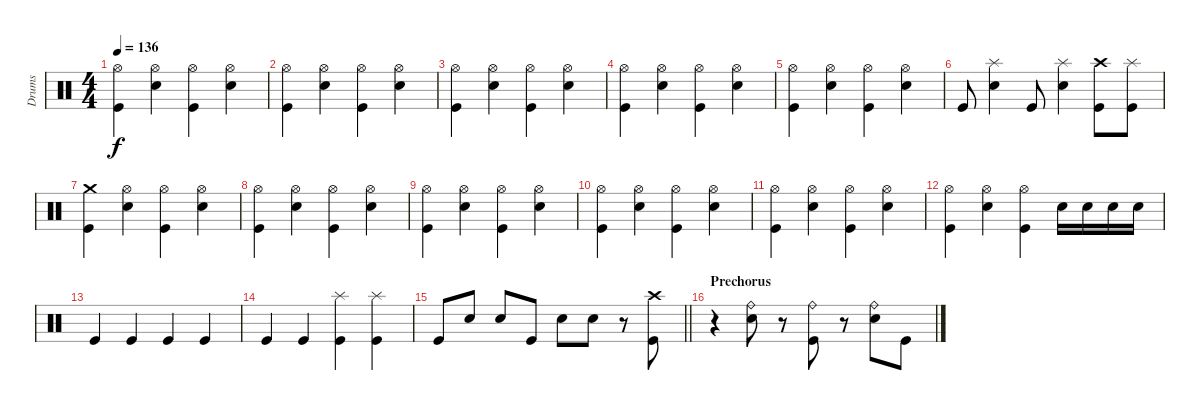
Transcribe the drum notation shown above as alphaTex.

\track ("Drums" "Drums") {instrument percussion}
\staff {score}
\articulation defaults
\ts (4 4)
\tempo 136
\clef neutral
\ks c
("Kick (hit)" "Hi-Hat (open)").4{dy f} ("Electric Snare (hit)" "Hi-Hat (open)").4 ("Kick (hit)" "Hi-Hat (open)").4 ("Electric Snare (hit)" "Hi-Hat (open)").4 |
("Kick (hit)" "Hi-Hat (open)").4 ("Electric Snare (hit)" "Hi-Hat (open)").4 ("Kick (hit)" "Hi-Hat (open)").4 ("Electric Snare (hit)" "Hi-Hat (open)").4 |
("Kick (hit)" "Hi-Hat (open)").4 ("Electric Snare (hit)" "Hi-Hat (open)").4 ("Kick (hit)" "Hi-Hat (open)").4 ("Electric Snare (hit)" "Hi-Hat (open)").4 |
("Kick (hit)" "Hi-Hat (open)").4 ("Electric Snare (hit)" "Hi-Hat (open)").4 ("Kick (hit)" "Hi-Hat (open)").4 ("Electric Snare (hit)" "Hi-Hat (open)").4 |
("Kick (hit)" "Hi-Hat (open)").4 ("Electric Snare (hit)" "Hi-Hat (open)").4 ("Kick (hit)" "Hi-Hat (open)").4 ("Electric Snare (hit)" "Hi-Hat (open)").4 |
"Kick (hit)".8 ("Electric Snare (hit)" "Splash (hit)").4 "Kick (hit)".8 ("Electric Snare (hit)" "Splash (hit)").4 ("Kick (hit)" "Crash high (hit)").8 ("Kick (hit)" "Splash (hit)").8 |
("Kick (hit)" "Crash medium (hit)").4 ("Electric Snare (hit)" "Hi-Hat (open)").4 ("Kick (hit)" "Hi-Hat (open)").4 ("Electric Snare (hit)" "Hi-Hat (open)").4 |
("Kick (hit)" "Hi-Hat (open)").4 ("Electric Snare (hit)" "Hi-Hat (open)").4 ("Kick (hit)" "Hi-Hat (open)").4 ("Electric Snare (hit)" "Hi-Hat (open)").4 |
("Kick (hit)" "Hi-Hat (open)").4 ("Electric Snare (hit)" "Hi-Hat (open)").4 ("Kick (hit)" "Hi-Hat (open)").4 ("Electric Snare (hit)" "Hi-Hat (open)").4 |
("Kick (hit)" "Hi-Hat (open)").4 ("Electric Snare (hit)" "Hi-Hat (open)").4 ("Kick (hit)" "Hi-Hat (open)").4 ("Electric Snare (hit)" "Hi-Hat (open)").4 |
("Kick (hit)" "Hi-Hat (open)").4 ("Electric Snare (hit)" "Hi-Hat (open)").4 ("Kick (hit)" "Hi-Hat (open)").4 ("Electric Snare (hit)" "Hi-Hat (open)").4 |
("Kick (hit)" "Hi-Hat (open)").4 ("Electric Snare (hit)" "Hi-Hat (open)").4 ("Kick (hit)" "Hi-Hat (open)").4 "Electric Snare (hit)".16 "Electric Snare (hit)".16 "Electric Snare (hit)".16 "Electric Snare (hit)".16 |
"Kick (hit)".4 "Kick (hit)".4 "Kick (hit)".4 "Kick (hit)".4 |
"Kick (hit)".4 "Kick (hit)".4 ("Kick (hit)" "Splash (hit)").4 ("Kick (hit)" "Splash (hit)").4 |
\barLineRight lightlight "Kick (hit)".8 "Electric Snare (hit)".8 "Electric Snare (hit)".8 "Kick (hit)".8 "Electric Snare (hit)".8 "Electric Snare (hit)".8
r.8 ("Kick (hit)" "Crash high (hit)").8 |
\section ("" "Prechorus")
r.4 ("Electric Snare (hit)" "Ride (bell)").8 r.8 ("Kick (hit)" "Ride (bell)").8 r.8 ("Electric Snare (hit)" "Ride (bell)").8 "Kick (hit)".8
